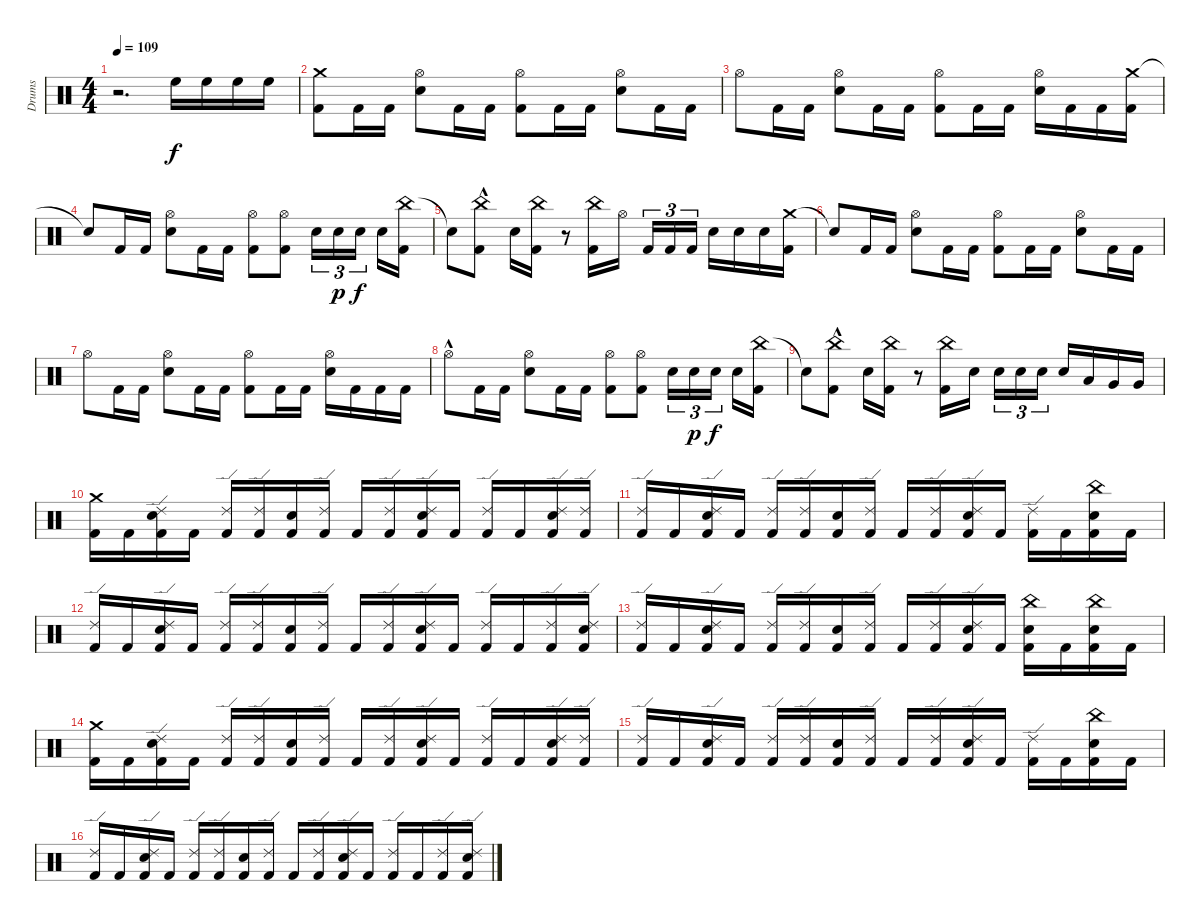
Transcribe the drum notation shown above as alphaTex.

\track ("Drums" "Drums") {instrument percussion}
\staff {score}
\articulation defaults
\ts (4 4)
\tempo 109
\clef neutral
\ks c
r.2{d dy f} "High Floor Tom (hit)".16 "High Floor Tom (hit)".16 "High Floor Tom (hit)".16 "High Floor Tom (hit)".16 |
("Kick (hit) 2" "Crash medium (hit)").8 "Kick (hit) 2".16 "Kick (hit) 2".16 ("Electric Snare (hit)" "Hi-Hat (open)").8 "Kick (hit) 2".16 "Kick (hit) 2".16 ("Kick (hit) 2" "Hi-Hat (open)").8 "Kick (hit) 2".16 "Kick (hit) 2".16 ("Electric Snare (hit)" "Hi-Hat (open)").8 "Kick (hit) 2".16 "Kick (hit) 2".16 |
"Hi-Hat (open)".8 "Kick (hit) 2".16 "Kick (hit) 2".16 ("Electric Snare (hit)" "Hi-Hat (open)").8 "Kick (hit) 2".16 "Kick (hit) 2".16 ("Kick (hit) 2" "Hi-Hat (open)").8 "Kick (hit) 2".16 "Kick (hit) 2".16 ("Electric Snare (hit)" "Hi-Hat (open)").16 "Kick (hit) 2".16 "Kick (hit) 2".16 ("Crash medium (hit)" "Kick (hit) 2").16 |
"Snare (hit)"{t}.8 "Kick (hit) 2".16 "Kick (hit) 2".16 ("Electric Snare (hit)" "Hi-Hat (open)").8 "Kick (hit) 2".16 "Kick (hit) 2".16 ("Kick (hit) 2" "Hi-Hat (open)").8 ("Kick (hit) 2" "Hi-Hat (open)").8 "Electric Snare (hit)".16{tu (3 2)} "Electric Snare (hit)".16{tu (3 2) dy p} "Electric Snare (hit)".16{tu (3 2) dy f} "Electric Snare (hit)".16 ("China (hit)" "Kick (hit) 2").16 |
"Snare (hit)"{t}.8 ("China (hit)"{hac} "Kick (hit) 2"{hac}).8 "Electric Snare (hit)".16 ("China (hit)" "Kick (hit) 2").16 r.8 ("China (hit)" "Kick (hit) 2").16 "Hi-Hat (open)".16 "Kick (hit) 2".16{tu (3 2)} "Kick (hit) 2".16{tu (3 2)} "Kick (hit) 2".16{tu (3 2)} "Electric Snare (hit)".16 "Electric Snare (hit)".16 "Electric Snare (hit)".16 ("Crash medium (hit)" "Kick (hit) 2").16 |
"Snare (hit)"{t}.8 "Kick (hit) 2".16 "Kick (hit) 2".16 ("Electric Snare (hit)" "Hi-Hat (open)").8 "Kick (hit) 2".16 "Kick (hit) 2".16 ("Kick (hit) 2" "Hi-Hat (open)").8 "Kick (hit) 2".16 "Kick (hit) 2".16 ("Electric Snare (hit)" "Hi-Hat (open)").8 "Kick (hit) 2".16 "Kick (hit) 2".16 |
"Hi-Hat (open)".8 "Kick (hit) 2".16 "Kick (hit) 2".16 ("Electric Snare (hit)" "Hi-Hat (open)").8 "Kick (hit) 2".16 "Kick (hit) 2".16 ("Kick (hit) 2" "Hi-Hat (open)").8 "Kick (hit) 2".16 "Kick (hit) 2".16 ("Electric Snare (hit)" "Hi-Hat (open)").16 "Kick (hit) 2".16 "Kick (hit) 2".16 "Kick (hit) 2".16 |
"Hi-Hat (open)"{hac}.8 "Kick (hit) 2".16 "Kick (hit) 2".16 ("Electric Snare (hit)" "Hi-Hat (open)").8 "Kick (hit) 2".16 "Kick (hit) 2".16 ("Kick (hit) 2" "Hi-Hat (open)").8 ("Kick (hit) 2" "Hi-Hat (open)").8 "Electric Snare (hit)".16{tu (3 2)} "Electric Snare (hit)".16{tu (3 2) dy p} "Electric Snare (hit)".16{tu (3 2) dy f} "Electric Snare (hit)".16 ("China (hit)" "Kick (hit) 2").16 |
"Snare (hit)"{t}.8 ("China (hit)"{hac} "Kick (hit) 2"{hac}).8 "Electric Snare (hit)".16 ("China (hit)" "Kick (hit) 2").16 r.8 ("China (hit)" "Kick (hit) 2").16 "Electric Snare (hit)".16 "Electric Snare (hit)".16{tu (3 2)} "Electric Snare (hit)".16{tu (3 2)} "Electric Snare (hit)".16{tu (3 2)} "Electric Snare (hit)".16 "Low Tom (hit)".16 "Very Low Tom (hit)".16 "Very Low Tom (hit)".16 |
("Kick (hit) 2" "Crash medium (hit)").16 "Kick (hit) 2".16 ("Electric Snare (hit)" "Kick (hit) 2" "Ride (edge) 2").16 "Kick (hit) 2".16 ("Kick (hit) 2" "Ride (edge) 2").16 ("Kick (hit) 2" "Ride (edge) 2").16 ("Electric Snare (hit)" "Kick (hit) 2").16 ("Kick (hit) 2" "Ride (edge) 2").16 "Kick (hit) 2".16 ("Kick (hit) 2" "Ride (edge) 2").16 ("Electric Snare (hit)" "Kick (hit) 2" "Ride (edge) 2").16 "Kick (hit) 2".16 ("Kick (hit) 2" "Ride (edge) 2").16 "Kick (hit) 2".16 ("Electric Snare (hit)" "Kick (hit) 2" "Ride (edge) 2").16 ("Kick (hit) 2" "Ride (edge) 2").16 |
("Ride (edge) 2" "Kick (hit) 2").16 "Kick (hit) 2".16 ("Electric Snare (hit)" "Kick (hit) 2" "Ride (edge) 2").16 "Kick (hit) 2".16 ("Kick (hit) 2" "Ride (edge) 2").16 ("Kick (hit) 2" "Ride (edge) 2").16 ("Electric Snare (hit)" "Kick (hit) 2").16 ("Kick (hit) 2" "Ride (edge) 2").16 "Kick (hit) 2".16 ("Kick (hit) 2" "Ride (edge) 2").16 ("Electric Snare (hit)" "Kick (hit) 2" "Ride (edge) 2").16 "Kick (hit) 2".16 ("Kick (hit) 2" "Ride (edge) 2").16 "Kick (hit) 2".16 ("China (hit)" "Electric Snare (hit)" "Kick (hit) 2").16 "Kick (hit) 2".16 |
("Ride (edge) 2" "Kick (hit) 2").16 "Kick (hit) 2".16 ("Electric Snare (hit)" "Kick (hit) 2" "Ride (edge) 2").16 "Kick (hit) 2".16 ("Kick (hit) 2" "Ride (edge) 2").16 ("Kick (hit) 2" "Ride (edge) 2").16 ("Electric Snare (hit)" "Kick (hit) 2").16 ("Kick (hit) 2" "Ride (edge) 2").16 "Kick (hit) 2".16 ("Kick (hit) 2" "Ride (edge) 2").16 ("Electric Snare (hit)" "Kick (hit) 2" "Ride (edge) 2").16 "Kick (hit) 2".16 ("Kick (hit) 2" "Ride (edge) 2").16 "Kick (hit) 2".16 ("Kick (hit) 2" "Ride (edge) 2").16 ("Electric Snare (hit)" "Kick (hit) 2" "Ride (edge) 2").16 |
("Ride (edge) 2" "Kick (hit) 2").16 "Kick (hit) 2".16 ("Electric Snare (hit)" "Kick (hit) 2" "Ride (edge) 2").16 "Kick (hit) 2".16 ("Kick (hit) 2" "Ride (edge) 2").16 ("Kick (hit) 2" "Ride (edge) 2").16 ("Electric Snare (hit)" "Kick (hit) 2").16 ("Kick (hit) 2" "Ride (edge) 2").16 "Kick (hit) 2".16 ("Kick (hit) 2" "Ride (edge) 2").16 ("Electric Snare (hit)" "Kick (hit) 2" "Ride (edge) 2").16 "Kick (hit) 2".16 ("Electric Snare (hit)" "China (hit)" "Kick (hit) 2").16 "Kick (hit) 2".16 ("China (hit)" "Electric Snare (hit)" "Kick (hit) 2").16 "Kick (hit) 2".16 |
("Kick (hit) 2" "Crash medium (hit)").16 "Kick (hit) 2".16 ("Electric Snare (hit)" "Kick (hit) 2" "Ride (edge) 2").16 "Kick (hit) 2".16 ("Kick (hit) 2" "Ride (edge) 2").16 ("Kick (hit) 2" "Ride (edge) 2").16 ("Electric Snare (hit)" "Kick (hit) 2").16 ("Kick (hit) 2" "Ride (edge) 2").16 "Kick (hit) 2".16 ("Kick (hit) 2" "Ride (edge) 2").16 ("Electric Snare (hit)" "Kick (hit) 2" "Ride (edge) 2").16 "Kick (hit) 2".16 ("Kick (hit) 2" "Ride (edge) 2").16 "Kick (hit) 2".16 ("Electric Snare (hit)" "Kick (hit) 2" "Ride (edge) 2").16 ("Kick (hit) 2" "Ride (edge) 2").16 |
("Ride (edge) 2" "Kick (hit) 2").16 "Kick (hit) 2".16 ("Electric Snare (hit)" "Kick (hit) 2" "Ride (edge) 2").16 "Kick (hit) 2".16 ("Kick (hit) 2" "Ride (edge) 2").16 ("Kick (hit) 2" "Ride (edge) 2").16 ("Electric Snare (hit)" "Kick (hit) 2").16 ("Kick (hit) 2" "Ride (edge) 2").16 "Kick (hit) 2".16 ("Kick (hit) 2" "Ride (edge) 2").16 ("Electric Snare (hit)" "Kick (hit) 2" "Ride (edge) 2").16 "Kick (hit) 2".16 ("Kick (hit) 2" "Ride (edge) 2").16 "Kick (hit) 2".16 ("China (hit)" "Electric Snare (hit)" "Kick (hit) 2").16 "Kick (hit) 2".16 |
("Ride (edge) 2" "Kick (hit) 2").16 "Kick (hit) 2".16 ("Electric Snare (hit)" "Kick (hit) 2" "Ride (edge) 2").16 "Kick (hit) 2".16 ("Kick (hit) 2" "Ride (edge) 2").16 ("Kick (hit) 2" "Ride (edge) 2").16 ("Electric Snare (hit)" "Kick (hit) 2").16 ("Kick (hit) 2" "Ride (edge) 2").16 "Kick (hit) 2".16 ("Kick (hit) 2" "Ride (edge) 2").16 ("Electric Snare (hit)" "Kick (hit) 2" "Ride (edge) 2").16 "Kick (hit) 2".16 ("Kick (hit) 2" "Ride (edge) 2").16 "Kick (hit) 2".16 ("Kick (hit) 2" "Ride (edge) 2").16 ("Electric Snare (hit)" "Kick (hit) 2" "Ride (edge) 2").16
